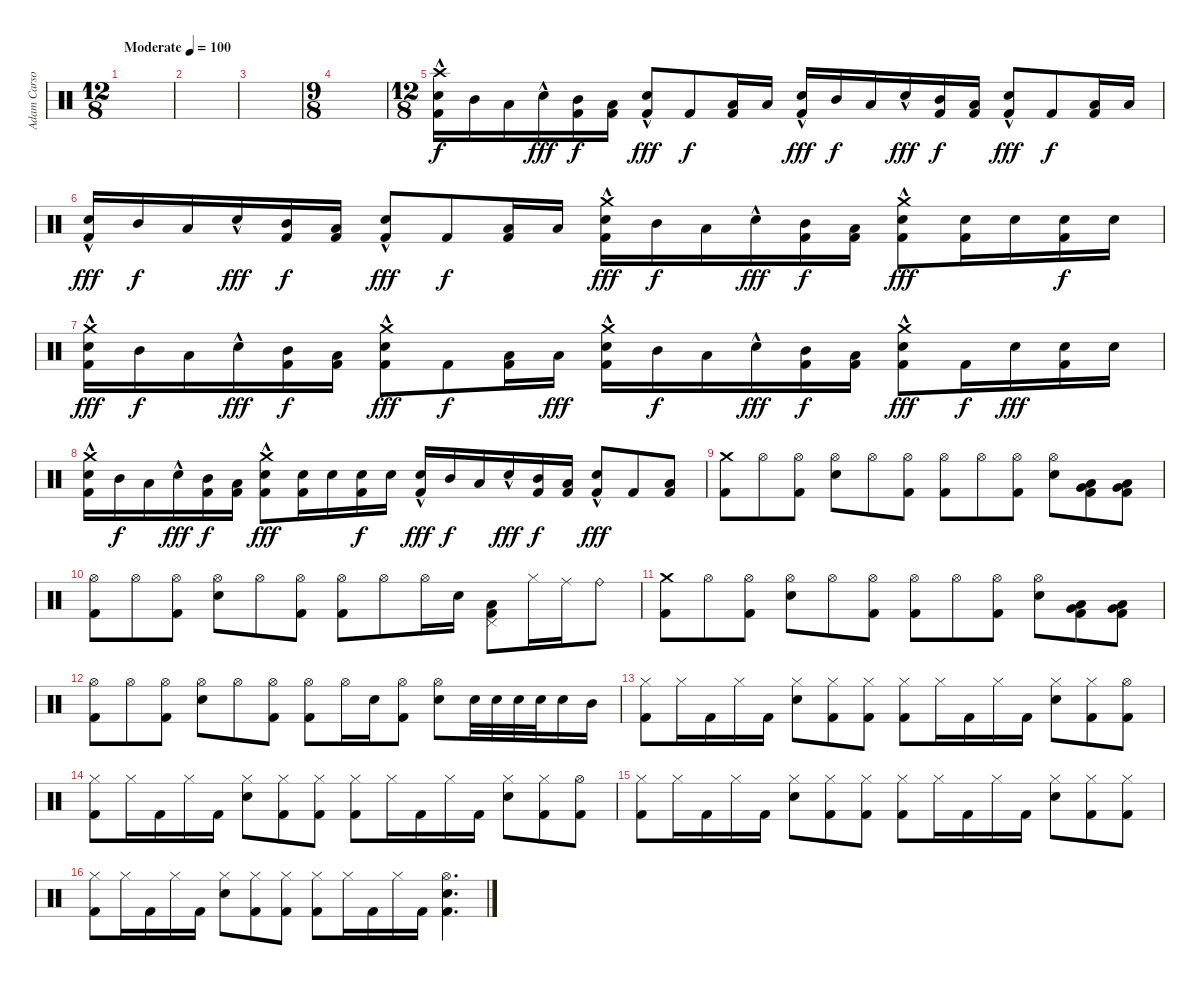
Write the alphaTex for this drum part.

\track ("Adam Carson" "Adam Carso") {instrument percussion}
\staff {score}
\articulation defaults
\ts (12 8)
\tempo (100 "Moderate")
\clef neutral
\ks aminor
|
|
|
\ts (9 8)
|
\ts (12 8)
("Crash high (hit)" "Electric Snare (hit)"{hac} "Kick (hit) 2").16 "Mid Tom (hit)".16{dy f} "Low Tom (hit)".16 "Electric Snare (hit)"{hac}.16{dy fff} ("Mid Tom (hit)" "Kick (hit) 2").16{dy f} ("Low Tom (hit)" "Kick (hit) 2").16 ("Electric Snare (hit)"{hac} "Kick (hit) 2").8{dy fff} "Kick (hit) 2".8{dy f} ("Low Floor Tom (hit)" "Kick (hit) 2").16 "Low Floor Tom (hit)".16 ("Electric Snare (hit)"{hac} "Kick (hit) 2").16{dy fff} "Mid Tom (hit)".16{dy f} "Low Tom (hit)".16 "Electric Snare (hit)"{hac}.16{dy fff} ("Mid Tom (hit)" "Kick (hit) 2").16{dy f} ("Low Tom (hit)" "Kick (hit) 2").16 ("Electric Snare (hit)"{hac} "Kick (hit) 2").8{dy fff} "Kick (hit) 2".8{dy f} ("Low Floor Tom (hit)" "Kick (hit) 2").16 "Low Floor Tom (hit)".16 |
("Electric Snare (hit)"{hac} "Kick (hit) 2").16{dy fff} "Mid Tom (hit)".16{dy f} "Low Tom (hit)".16 "Electric Snare (hit)"{hac}.16{dy fff} ("Mid Tom (hit)" "Kick (hit) 2").16{dy f} ("Low Tom (hit)" "Kick (hit) 2").16 ("Electric Snare (hit)"{hac} "Kick (hit) 2").8{dy fff} "Kick (hit) 2".8{dy f} ("Low Floor Tom (hit)" "Kick (hit) 2").16 "Low Floor Tom (hit)".16 ("Crash medium (hit)" "Electric Snare (hit)"{hac} "Kick (hit) 2").16{dy fff} "Mid Tom (hit)".16{dy f} "Low Tom (hit)".16 "Electric Snare (hit)"{hac}.16{dy fff} ("Mid Tom (hit)" "Kick (hit) 2").16{dy f} ("Low Tom (hit)" "Kick (hit) 2").16 ("Crash medium (hit)" "Electric Snare (hit)"{hac} "Kick (hit) 2").8{dy fff} ("Electric Snare (hit)" "Kick (hit) 2").16 "Electric Snare (hit)".16 ("Electric Snare (hit)" "Kick (hit) 2").16{dy f} "Electric Snare (hit)".16 |
("Crash medium (hit)" "Electric Snare (hit)"{hac} "Kick (hit) 2").16{dy fff} "Mid Tom (hit)".16{dy f} "Low Tom (hit)".16 "Electric Snare (hit)"{hac}.16{dy fff} ("Mid Tom (hit)" "Kick (hit) 2").16{dy f} ("Low Tom (hit)" "Kick (hit) 2").16 ("Crash medium (hit)" "Electric Snare (hit)"{hac} "Kick (hit) 2").8{dy fff} "Kick (hit) 2".8{dy f} ("Low Floor Tom (hit)" "Kick (hit) 2").16 "Low Floor Tom (hit)".16{dy fff} ("Crash medium (hit)" "Electric Snare (hit)"{hac} "Kick (hit) 2").16 "Mid Tom (hit)".16{dy f} "Low Tom (hit)".16 "Electric Snare (hit)"{hac}.16{dy fff} ("Mid Tom (hit)" "Kick (hit) 2").16{dy f} ("Low Tom (hit)" "Kick (hit) 2").16 ("Crash medium (hit)" "Electric Snare (hit)"{hac} "Kick (hit) 2").8{dy fff} "Kick (hit) 2".16{dy f} "Electric Snare (hit)".16{dy fff} ("Electric Snare (hit)" "Kick (hit) 2").16 "Electric Snare (hit)".16 |
("Crash medium (hit)" "Electric Snare (hit)"{hac} "Kick (hit) 2").16 "Mid Tom (hit)".16{dy f} "Low Tom (hit)".16 "Electric Snare (hit)"{hac}.16{dy fff} ("Mid Tom (hit)" "Kick (hit) 2").16{dy f} ("Low Tom (hit)" "Kick (hit) 2").16 ("Crash medium (hit)" "Electric Snare (hit)"{hac} "Kick (hit) 2").8{dy fff} ("Electric Snare (hit)" "Kick (hit) 2").16 "Electric Snare (hit)".16 ("Electric Snare (hit)" "Kick (hit) 2").16{dy f} "Electric Snare (hit)".16 ("Electric Snare (hit)"{hac} "Kick (hit) 2").16{dy fff} "Mid Tom (hit)".16{dy f} "Low Tom (hit)".16 "Electric Snare (hit)"{hac}.16{dy fff} ("Mid Tom (hit)" "Kick (hit) 2").16{dy f} ("Low Tom (hit)" "Kick (hit) 2").16 ("Electric Snare (hit)"{hac} "Kick (hit) 2").8{dy fff} "Kick (hit) 2".8 ("Low Floor Tom (hit)" "Kick (hit) 2").8 |
("Crash medium (hit)" "Kick (hit) 2").8 "Hi-Hat (open)".8 ("Hi-Hat (open)" "Kick (hit) 2").8 ("Hi-Hat (open)" "Electric Snare (hit)").8 "Hi-Hat (open)".8 ("Hi-Hat (open)" "Kick (hit) 2").8 ("Hi-Hat (open)" "Kick (hit) 2").8 "Hi-Hat (open)".8 ("Hi-Hat (open)" "Kick (hit) 2").8 ("Hi-Hat (open)" "Electric Snare (hit)").8 ("Very Low Tom (hit)" "Low Floor Tom (hit)" "Kick (hit) 2").8 ("Very Low Tom (hit)" "Low Floor Tom (hit)" "Kick (hit) 2").8 |
("Hi-Hat (open)" "Kick (hit) 2").8 "Hi-Hat (open)".8 ("Hi-Hat (open)" "Kick (hit) 2").8 ("Hi-Hat (open)" "Electric Snare (hit)").8 "Hi-Hat (open)".8 ("Hi-Hat (open)" "Kick (hit) 2").8 ("Hi-Hat (open)" "Kick (hit) 2").8 "Hi-Hat (open)".8 "Hi-Hat (open)".16 "Electric Snare (hit)".16 ("Pedal Hi-Hat (hit)" "Low Tom (hit)" "Kick (hit) 2").8 "Hi-Hat (closed)".16 "Ride (middle)".16 "Ride (bell)".8 |
("Crash medium (hit)" "Kick (hit) 2").8 "Hi-Hat (open)".8 ("Hi-Hat (open)" "Kick (hit) 2").8 ("Hi-Hat (open)" "Electric Snare (hit)").8 "Hi-Hat (open)".8 ("Hi-Hat (open)" "Kick (hit) 2").8 ("Hi-Hat (open)" "Kick (hit) 2").8 "Hi-Hat (open)".8 ("Hi-Hat (open)" "Kick (hit) 2").8 ("Hi-Hat (open)" "Electric Snare (hit)").8 ("Very Low Tom (hit)" "Low Floor Tom (hit)" "Kick (hit) 2").8 ("Very Low Tom (hit)" "Low Floor Tom (hit)" "Kick (hit) 2").8 |
("Hi-Hat (open)" "Kick (hit) 2").8 "Hi-Hat (open)".8 ("Hi-Hat (open)" "Kick (hit) 2").8 ("Hi-Hat (open)" "Electric Snare (hit)").8 "Hi-Hat (open)".8 ("Hi-Hat (open)" "Kick (hit) 2").8 ("Hi-Hat (open)" "Kick (hit) 2").8 "Hi-Hat (open)".16 "Electric Snare (hit)".16 ("Hi-Hat (open)" "Kick (hit) 2").8 ("Hi-Hat (open)" "Electric Snare (hit)").8 "Electric Snare (hit)".32 "Electric Snare (hit)".32 "Electric Snare (hit)".32 "Electric Snare (hit)".32 "Electric Snare (hit)".16 "Mid Tom (hit)".16 |
("Hi-Hat (closed)" "Kick (hit) 2").8 "Hi-Hat (closed)".16 "Kick (hit) 2".16 "Hi-Hat (closed)".16 "Kick (hit) 2".16 ("Hi-Hat (closed)" "Electric Snare (hit)").8 ("Hi-Hat (closed)" "Kick (hit) 2").8 ("Hi-Hat (closed)" "Kick (hit) 2").8 ("Hi-Hat (closed)" "Kick (hit) 2").8 "Hi-Hat (closed)".16 "Kick (hit) 2".16 "Hi-Hat (closed)".16 "Kick (hit) 2".16 ("Hi-Hat (closed)" "Electric Snare (hit)").8 ("Hi-Hat (closed)" "Kick (hit) 2").8 ("Hi-Hat (open)" "Kick (hit) 2").8 |
("Hi-Hat (closed)" "Kick (hit) 2").8 "Hi-Hat (closed)".16 "Kick (hit) 2".16 "Hi-Hat (closed)".16 "Kick (hit) 2".16 ("Hi-Hat (closed)" "Electric Snare (hit)").8 ("Hi-Hat (closed)" "Kick (hit) 2").8 ("Hi-Hat (closed)" "Kick (hit) 2").8 ("Hi-Hat (closed)" "Kick (hit) 2").8 "Hi-Hat (closed)".16 "Kick (hit) 2".16 "Hi-Hat (closed)".16 "Kick (hit) 2".16 ("Hi-Hat (closed)" "Electric Snare (hit)").8 ("Hi-Hat (closed)" "Kick (hit) 2").8 ("Hi-Hat (open)" "Kick (hit) 2").8 |
("Hi-Hat (closed)" "Kick (hit) 2").8 "Hi-Hat (closed)".16 "Kick (hit) 2".16 "Hi-Hat (closed)".16 "Kick (hit) 2".16 ("Hi-Hat (closed)" "Electric Snare (hit)").8 ("Hi-Hat (closed)" "Kick (hit) 2").8 ("Hi-Hat (closed)" "Kick (hit) 2").8 ("Hi-Hat (closed)" "Kick (hit) 2").8 "Hi-Hat (closed)".16 "Kick (hit) 2".16 "Hi-Hat (closed)".16 "Kick (hit) 2".16 ("Hi-Hat (closed)" "Electric Snare (hit)").8 ("Hi-Hat (closed)" "Kick (hit) 2").8 ("Hi-Hat (closed)" "Kick (hit) 2").8 |
("Hi-Hat (closed)" "Kick (hit) 2").8 "Hi-Hat (closed)".16 "Kick (hit) 2".16 "Hi-Hat (closed)".16 "Kick (hit) 2".16 ("Hi-Hat (closed)" "Electric Snare (hit)").8 ("Hi-Hat (closed)" "Kick (hit) 2").8 ("Hi-Hat (closed)" "Kick (hit) 2").8 ("Hi-Hat (closed)" "Kick (hit) 2").8 "Hi-Hat (closed)".16 "Kick (hit) 2".16 "Hi-Hat (closed)".16 "Kick (hit) 2".16 ("Hi-Hat (open)" "Electric Snare (hit)" "Kick (hit) 2").4{d}
